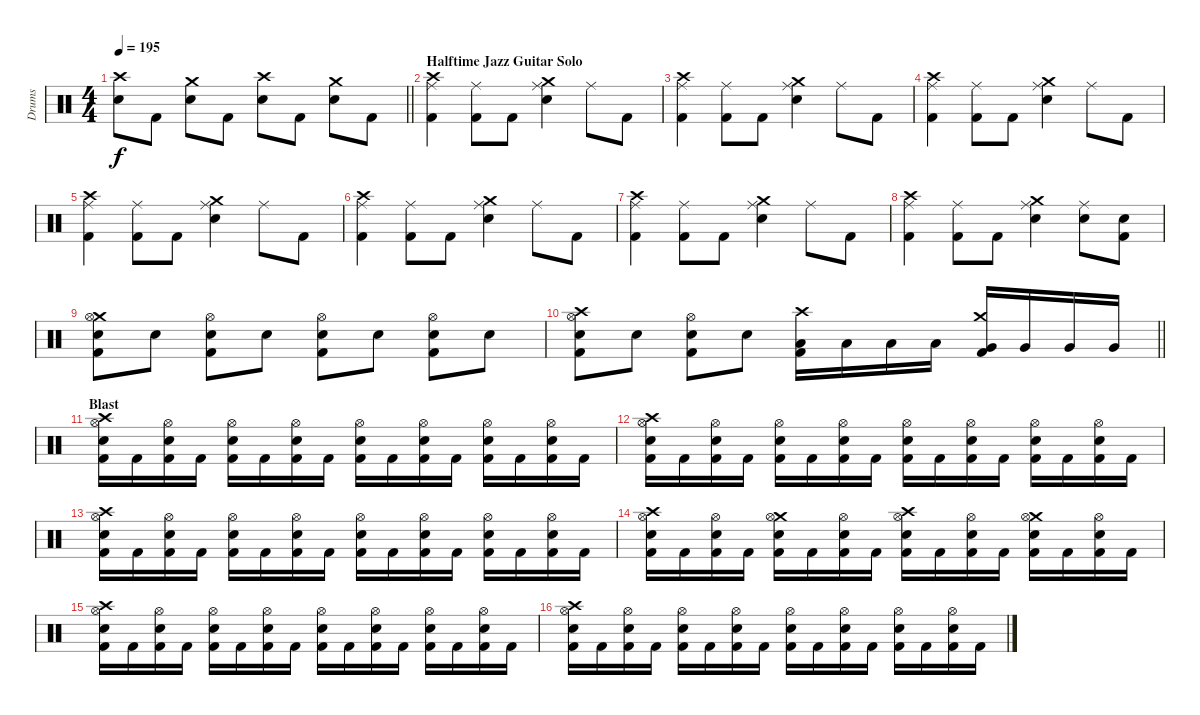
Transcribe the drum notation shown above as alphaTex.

\track ("Drums" "Drums") {instrument percussion}
\staff {score}
\articulation defaults
\ts (4 4)
\tempo 195
\clef neutral
\barLineRight lightlight
\ks c
("Crash high (hit)" "Snare (hit) 2").8{dy f} "Kick (hit) 2".8 ("Crash medium (hit)" "Snare (hit) 2").8 "Kick (hit) 2".8 ("Crash high (hit)" "Snare (hit) 2").8 "Kick (hit) 2".8 ("Crash medium (hit)" "Snare (hit) 2").8 "Kick (hit) 2".8 |
\section ("" "Halftime Jazz Guitar Solo")
("Crash high (hit)" "Ride (middle)" "Kick (hit) 2").4 ("Ride (middle)" "Kick (hit) 2").8 "Kick (hit) 2".8 ("Crash medium (hit)" "Ride (middle)" "Snare (hit) 2").4 "Ride (middle)".8 "Kick (hit) 2".8 |
("Crash high (hit)" "Ride (middle)" "Kick (hit) 2").4 ("Ride (middle)" "Kick (hit) 2").8 "Kick (hit) 2".8 ("Crash medium (hit)" "Ride (middle)" "Snare (hit) 2").4 "Ride (middle)".8 "Kick (hit) 2".8 |
("Crash high (hit)" "Ride (middle)" "Kick (hit) 2").4 ("Ride (middle)" "Kick (hit) 2").8 "Kick (hit) 2".8 ("Crash medium (hit)" "Ride (middle)" "Snare (hit) 2").4 "Ride (middle)".8 "Kick (hit) 2".8 |
("Crash high (hit)" "Ride (middle)" "Kick (hit) 2").4 ("Ride (middle)" "Kick (hit) 2").8 "Kick (hit) 2".8 ("Crash medium (hit)" "Ride (middle)" "Snare (hit) 2").4 "Ride (middle)".8 "Kick (hit) 2".8 |
("Crash high (hit)" "Ride (middle)" "Kick (hit) 2").4 ("Ride (middle)" "Kick (hit) 2").8 "Kick (hit) 2".8 ("Crash medium (hit)" "Ride (middle)" "Snare (hit) 2").4 "Ride (middle)".8 "Kick (hit) 2".8 |
("Crash high (hit)" "Ride (middle)" "Kick (hit) 2").4 ("Ride (middle)" "Kick (hit) 2").8 "Kick (hit) 2".8 ("Crash medium (hit)" "Ride (middle)" "Snare (hit) 2").4 "Ride (middle)".8 "Kick (hit) 2".8 |
("Crash high (hit)" "Ride (middle)" "Kick (hit) 2").4 ("Ride (middle)" "Kick (hit) 2").8 "Kick (hit) 2".8 ("Crash medium (hit)" "Ride (middle)" "Snare (hit) 2").4 ("Ride (middle)" "Snare (hit) 2").8 ("Snare (hit) 2" "Kick (hit) 2").8 |
("Crash medium (hit)" "Hi-Hat (open)" "Snare (hit) 2" "Kick (hit) 2").8 "Snare (hit) 2".8 ("Hi-Hat (open)" "Snare (hit) 2" "Kick (hit) 2").8 "Snare (hit) 2".8 ("Hi-Hat (open)" "Snare (hit) 2" "Kick (hit) 2").8 "Snare (hit) 2".8 ("Hi-Hat (open)" "Snare (hit) 2" "Kick (hit) 2").8 "Snare (hit) 2".8 |
\barLineRight lightlight
("Crash high (hit)" "Hi-Hat (open)" "Snare (hit) 2" "Kick (hit) 2").8 "Snare (hit) 2".8 ("Hi-Hat (open)" "Snare (hit) 2" "Kick (hit) 2").8 "Snare (hit) 2".8 ("Crash high (hit)" "Low Tom (hit)" "Kick (hit) 2").16 "Low Tom (hit)".16 "Low Tom (hit)".16 "Low Tom (hit)".16 ("Crash medium (hit)" "Very Low Tom (hit)" "Kick (hit) 2").16 "Very Low Tom (hit)".16 "Very Low Tom (hit)".16 "Very Low Tom (hit)".16 |
\section ("" "Blast")
("Crash high (hit)" "Hi-Hat (open)" "Snare (hit) 2" "Kick (hit) 2").16 "Kick (hit) 2".16 ("Hi-Hat (open)" "Snare (hit) 2" "Kick (hit) 2").16 "Kick (hit) 2".16 ("Hi-Hat (open)" "Snare (hit) 2" "Kick (hit) 2").16 "Kick (hit) 2".16 ("Hi-Hat (open)" "Snare (hit) 2" "Kick (hit) 2").16 "Kick (hit) 2".16 ("Hi-Hat (open)" "Snare (hit) 2" "Kick (hit) 2").16 "Kick (hit) 2".16 ("Hi-Hat (open)" "Snare (hit) 2" "Kick (hit) 2").16 "Kick (hit) 2".16 ("Hi-Hat (open)" "Snare (hit) 2" "Kick (hit) 2").16 "Kick (hit) 2".16 ("Hi-Hat (open)" "Snare (hit) 2" "Kick (hit) 2").16 "Kick (hit) 2".16 |
("Crash high (hit)" "Hi-Hat (open)" "Snare (hit) 2" "Kick (hit) 2").16 "Kick (hit) 2".16 ("Hi-Hat (open)" "Snare (hit) 2" "Kick (hit) 2").16 "Kick (hit) 2".16 ("Hi-Hat (open)" "Snare (hit) 2" "Kick (hit) 2").16 "Kick (hit) 2".16 ("Hi-Hat (open)" "Snare (hit) 2" "Kick (hit) 2").16 "Kick (hit) 2".16 ("Hi-Hat (open)" "Snare (hit) 2" "Kick (hit) 2").16 "Kick (hit) 2".16 ("Hi-Hat (open)" "Snare (hit) 2" "Kick (hit) 2").16 "Kick (hit) 2".16 ("Hi-Hat (open)" "Snare (hit) 2" "Kick (hit) 2").16 "Kick (hit) 2".16 ("Hi-Hat (open)" "Snare (hit) 2" "Kick (hit) 2").16 "Kick (hit) 2".16 |
("Crash high (hit)" "Hi-Hat (open)" "Snare (hit) 2" "Kick (hit) 2").16 "Kick (hit) 2".16 ("Hi-Hat (open)" "Snare (hit) 2" "Kick (hit) 2").16 "Kick (hit) 2".16 ("Hi-Hat (open)" "Snare (hit) 2" "Kick (hit) 2").16 "Kick (hit) 2".16 ("Hi-Hat (open)" "Snare (hit) 2" "Kick (hit) 2").16 "Kick (hit) 2".16 ("Hi-Hat (open)" "Snare (hit) 2" "Kick (hit) 2").16 "Kick (hit) 2".16 ("Hi-Hat (open)" "Snare (hit) 2" "Kick (hit) 2").16 "Kick (hit) 2".16 ("Hi-Hat (open)" "Snare (hit) 2" "Kick (hit) 2").16 "Kick (hit) 2".16 ("Hi-Hat (open)" "Snare (hit) 2" "Kick (hit) 2").16 "Kick (hit) 2".16 |
("Crash high (hit)" "Hi-Hat (open)" "Snare (hit) 2" "Kick (hit) 2").16 "Kick (hit) 2".16 ("Hi-Hat (open)" "Snare (hit) 2" "Kick (hit) 2").16 "Kick (hit) 2".16 ("Crash medium (hit)" "Hi-Hat (open)" "Snare (hit) 2" "Kick (hit) 2").16 "Kick (hit) 2".16 ("Hi-Hat (open)" "Snare (hit) 2" "Kick (hit) 2").16 "Kick (hit) 2".16 ("Crash high (hit)" "Hi-Hat (open)" "Snare (hit) 2" "Kick (hit) 2").16 "Kick (hit) 2".16 ("Hi-Hat (open)" "Snare (hit) 2" "Kick (hit) 2").16 "Kick (hit) 2".16 ("Crash medium (hit)" "Hi-Hat (open)" "Snare (hit) 2" "Kick (hit) 2").16 "Kick (hit) 2".16 ("Hi-Hat (open)" "Snare (hit) 2" "Kick (hit) 2").16 "Kick (hit) 2".16 |
("Crash high (hit)" "Hi-Hat (open)" "Snare (hit) 2" "Kick (hit) 2").16 "Kick (hit) 2".16 ("Hi-Hat (open)" "Snare (hit) 2" "Kick (hit) 2").16 "Kick (hit) 2".16 ("Hi-Hat (open)" "Snare (hit) 2" "Kick (hit) 2").16 "Kick (hit) 2".16 ("Hi-Hat (open)" "Snare (hit) 2" "Kick (hit) 2").16 "Kick (hit) 2".16 ("Hi-Hat (open)" "Snare (hit) 2" "Kick (hit) 2").16 "Kick (hit) 2".16 ("Hi-Hat (open)" "Snare (hit) 2" "Kick (hit) 2").16 "Kick (hit) 2".16 ("Hi-Hat (open)" "Snare (hit) 2" "Kick (hit) 2").16 "Kick (hit) 2".16 ("Hi-Hat (open)" "Snare (hit) 2" "Kick (hit) 2").16 "Kick (hit) 2".16 |
("Crash high (hit)" "Hi-Hat (open)" "Snare (hit) 2" "Kick (hit) 2").16 "Kick (hit) 2".16 ("Hi-Hat (open)" "Snare (hit) 2" "Kick (hit) 2").16 "Kick (hit) 2".16 ("Hi-Hat (open)" "Snare (hit) 2" "Kick (hit) 2").16 "Kick (hit) 2".16 ("Hi-Hat (open)" "Snare (hit) 2" "Kick (hit) 2").16 "Kick (hit) 2".16 ("Hi-Hat (open)" "Snare (hit) 2" "Kick (hit) 2").16 "Kick (hit) 2".16 ("Hi-Hat (open)" "Snare (hit) 2" "Kick (hit) 2").16 "Kick (hit) 2".16 ("Hi-Hat (open)" "Snare (hit) 2" "Kick (hit) 2").16 "Kick (hit) 2".16 ("Hi-Hat (open)" "Snare (hit) 2" "Kick (hit) 2").16 "Kick (hit) 2".16
